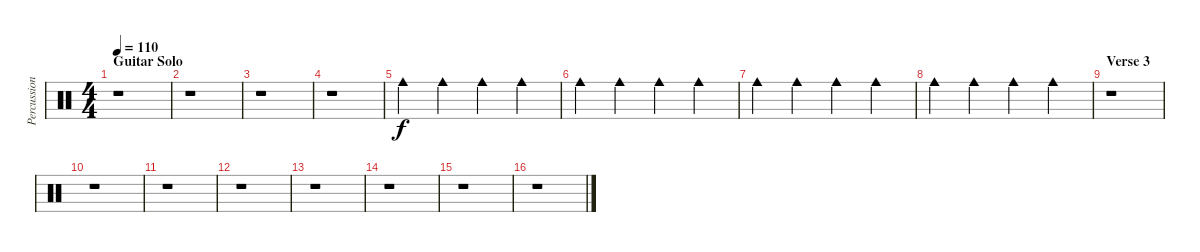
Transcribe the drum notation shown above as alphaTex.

\track ("Percussions" "Percussion") {instrument percussion}
\staff {score}
\articulation defaults
\ts (4 4)
\section ("" "Guitar Solo")
\tempo 110
\clef neutral
\ks c
r.1{dy f} |
r.1 |
r.1 |
r.1 |
"Cowbell medium (hit)".4 "Cowbell medium (hit)".4 "Cowbell medium (hit)".4 "Cowbell medium (hit)".4 |
"Cowbell medium (hit)".4 "Cowbell medium (hit)".4 "Cowbell medium (hit)".4 "Cowbell medium (hit)".4 |
"Cowbell medium (hit)".4 "Cowbell medium (hit)".4 "Cowbell medium (hit)".4 "Cowbell medium (hit)".4 |
"Cowbell medium (hit)".4 "Cowbell medium (hit)".4 "Cowbell medium (hit)".4 "Cowbell medium (hit)".4 |
\section ("" "Verse 3")
r.1 |
r.1 |
r.1 |
r.1 |
r.1 |
r.1 |
r.1 |
r.1
